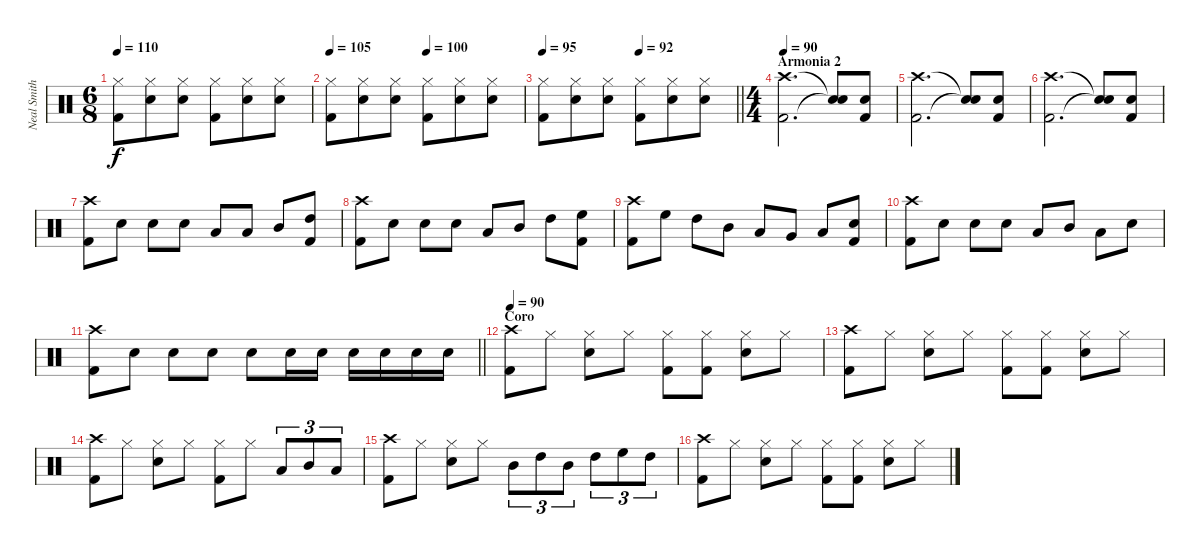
\track ("Neal Smith" "Neal Smith") {instrument percussion}
\staff {score}
\articulation defaults
\ts (6 8)
\tempo 110
\clef neutral
\ks c
("Hi-Hat (closed)" "Kick (hit) 2").8{dy f} ("Hi-Hat (closed)" "Snare (hit) 2").8 ("Hi-Hat (closed)" "Snare (hit) 2").8 ("Hi-Hat (closed)" "Kick (hit) 2").8 ("Hi-Hat (closed)" "Snare (hit) 2").8 ("Hi-Hat (closed)" "Snare (hit) 2").8 |
\tempo 105
\tempo (100 0.5)
("Hi-Hat (closed)" "Kick (hit) 2").8 ("Hi-Hat (closed)" "Snare (hit) 2").8 ("Hi-Hat (closed)" "Snare (hit) 2").8 ("Hi-Hat (closed)" "Kick (hit) 2").8 ("Hi-Hat (closed)" "Snare (hit) 2").8 ("Hi-Hat (closed)" "Snare (hit) 2").8 |
\tempo 95
\tempo (92 0.5)
\barLineRight lightlight
("Hi-Hat (closed)" "Kick (hit) 2").8 ("Hi-Hat (closed)" "Snare (hit) 2").8 ("Hi-Hat (closed)" "Snare (hit) 2").8 ("Hi-Hat (closed)" "Kick (hit) 2").8 ("Hi-Hat (closed)" "Snare (hit) 2").8 ("Hi-Hat (closed)" "Snare (hit) 2").8 |
\ts (4 4)
\section ("" "Armonia 2")
\tempo 90
("Crash high (hit)" "Kick (hit) 2").2{d} ("Snare (hit)"{t} "Snare (hit)"{t}).8 ("Snare (hit) 2" "Kick (hit) 2").8 |
("Crash high (hit)" "Kick (hit) 2").2{d} ("Snare (hit)"{t} "Snare (hit)"{t}).8 ("Snare (hit) 2" "Kick (hit) 2").8 |
("Crash high (hit)" "Kick (hit) 2").2{d} ("Snare (hit)"{t} "Snare (hit)"{t}).8 ("Snare (hit) 2" "Kick (hit) 2").8 |
("Crash high (hit)" "Kick (hit) 2").8 "Snare (hit) 2".8 "Snare (hit) 2".8 "Snare (hit) 2".8 "Low Tom (hit)".8 "Low Tom (hit)".8 "Mid Tom (hit)".8 ("High Tom (hit)" "Kick (hit) 2").8 |
("Crash high (hit)" "Kick (hit) 2").8 "Snare (hit) 2".8 "Snare (hit) 2".8 "Snare (hit) 2".8 "Low Tom (hit)".8 "Mid Tom (hit)".8 "High Tom (hit)".8 ("High Floor Tom (hit)" "Kick (hit) 2").8 |
("Crash high (hit)" "Kick (hit) 2").8 "High Floor Tom (hit)".8 "High Tom (hit)".8 "Mid Tom (hit)".8 "Low Tom (hit)".8 "Very Low Tom (hit)".8 "Low Floor Tom (hit)".8 ("Snare (hit) 2" "Kick (hit) 2").8 |
("Crash high (hit)" "Kick (hit) 2").8 "Snare (hit) 2".8 "Snare (hit) 2".8 "Snare (hit) 2".8 "Low Tom (hit)".8 "Mid Tom (hit)".8 "Low Tom (hit)".8 "Snare (hit) 2".8 |
\barLineRight lightlight
("Crash high (hit)" "Kick (hit) 2").8 "Snare (hit) 2".8 "Snare (hit) 2".8 "Snare (hit) 2".8 "Snare (hit) 2".8 "Snare (hit) 2".16 "Snare (hit) 2".16 "Snare (hit) 2".16 "Snare (hit) 2".16 "Snare (hit) 2".16 "Snare (hit) 2".16 |
\section ("" "Coro")
\tempo 90
("Crash high (hit)" "Kick (hit) 2").8 "Hi-Hat (closed)".8 ("Hi-Hat (closed)" "Snare (hit) 2").8 "Hi-Hat (closed)".8 ("Hi-Hat (closed)" "Kick (hit) 2").8 ("Hi-Hat (closed)" "Kick (hit) 2").8 ("Hi-Hat (closed)" "Snare (hit) 2").8 "Hi-Hat (closed)".8 |
("Crash high (hit)" "Kick (hit) 2").8 "Hi-Hat (closed)".8 ("Hi-Hat (closed)" "Snare (hit) 2").8 "Hi-Hat (closed)".8 ("Hi-Hat (closed)" "Kick (hit) 2").8 ("Hi-Hat (closed)" "Kick (hit) 2").8 ("Hi-Hat (closed)" "Snare (hit) 2").8 "Hi-Hat (closed)".8 |
("Crash high (hit)" "Kick (hit) 2").8 "Hi-Hat (closed)".8 ("Hi-Hat (closed)" "Snare (hit) 2").8 "Hi-Hat (closed)".8 ("Hi-Hat (closed)" "Kick (hit) 2").8 "Hi-Hat (closed)".8 "Low Tom (hit)".8{tu (3 2)} "Mid Tom (hit)".8{tu (3 2)} "Low Tom (hit)".8{tu (3 2)} |
("Crash high (hit)" "Kick (hit) 2").8 "Hi-Hat (closed)".8 ("Hi-Hat (closed)" "Snare (hit) 2").8 "Hi-Hat (closed)".8 "Mid Tom (hit)".8{tu (3 2)} "High Tom (hit)".8{tu (3 2)} "Mid Tom (hit)".8{tu (3 2)} "High Tom (hit)".8{tu (3 2)} "High Floor Tom (hit)".8{tu (3 2)} "High Tom (hit)".8{tu (3 2)} |
("Crash high (hit)" "Kick (hit) 2").8 "Hi-Hat (closed)".8 ("Hi-Hat (closed)" "Snare (hit) 2").8 "Hi-Hat (closed)".8 ("Hi-Hat (closed)" "Kick (hit) 2").8 ("Hi-Hat (closed)" "Kick (hit) 2").8 ("Hi-Hat (closed)" "Snare (hit) 2").8 "Hi-Hat (closed)".8
